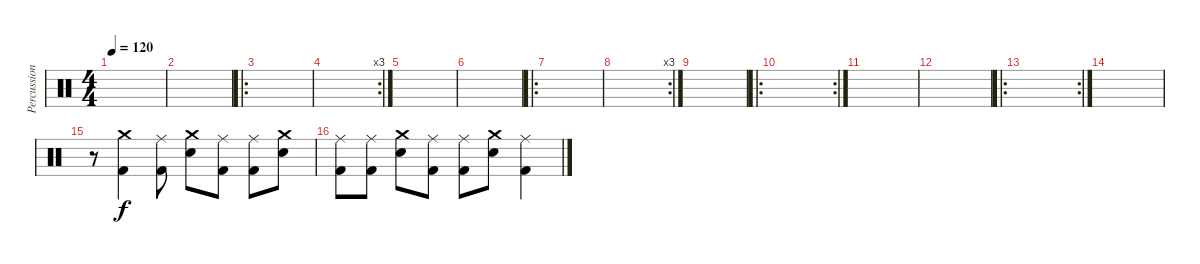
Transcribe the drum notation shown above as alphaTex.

\track ("Percussion" "Percussion") {instrument percussion}
\staff {score}
\articulation defaults
\ts (4 4)
\tempo 120
\clef neutral
\ks c
|
|
\ro
|
\rc 3
|
|
|
\ro
|
\rc 3
|
|
\ro
\rc 2
|
|
|
\ro
\rc 2
|
|
r.8 ("Crash medium (hit)" "Kick (hit) 2").4 ("Ride (middle)" "Kick (hit) 2").8 ("Crash medium (hit)" "Snare (hit) 2").8 ("Ride (middle)" "Kick (hit) 2").8 ("Ride (middle)" "Kick (hit) 2").8 ("Crash medium (hit)" "Snare (hit) 2").8 |
("Ride (middle)" "Kick (hit) 2").8 ("Ride (middle)" "Kick (hit) 2").8 ("Crash medium (hit)" "Snare (hit) 2").8 ("Ride (middle)" "Kick (hit) 2").8 ("Ride (middle)" "Kick (hit) 2").8 ("Crash medium (hit)" "Snare (hit) 2").8 ("Ride (middle)" "Kick (hit) 2").4
